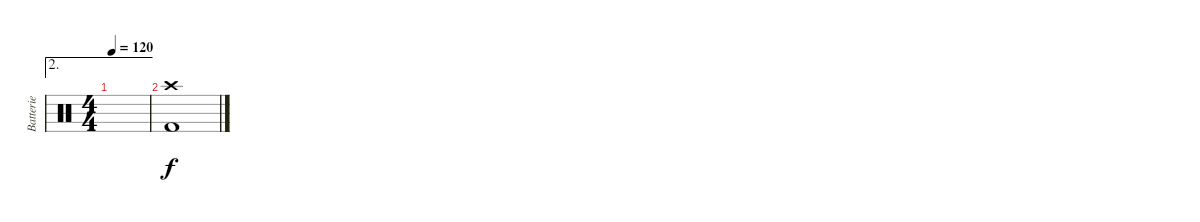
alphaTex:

\track ("Batterie" "Batterie") {instrument percussion}
\staff {score}
\articulation defaults
\ae 2
\ts (4 4)
\tempo 120
\clef neutral
\ks c
|
("Crash high (hit)" "Kick (hit) 2").1
